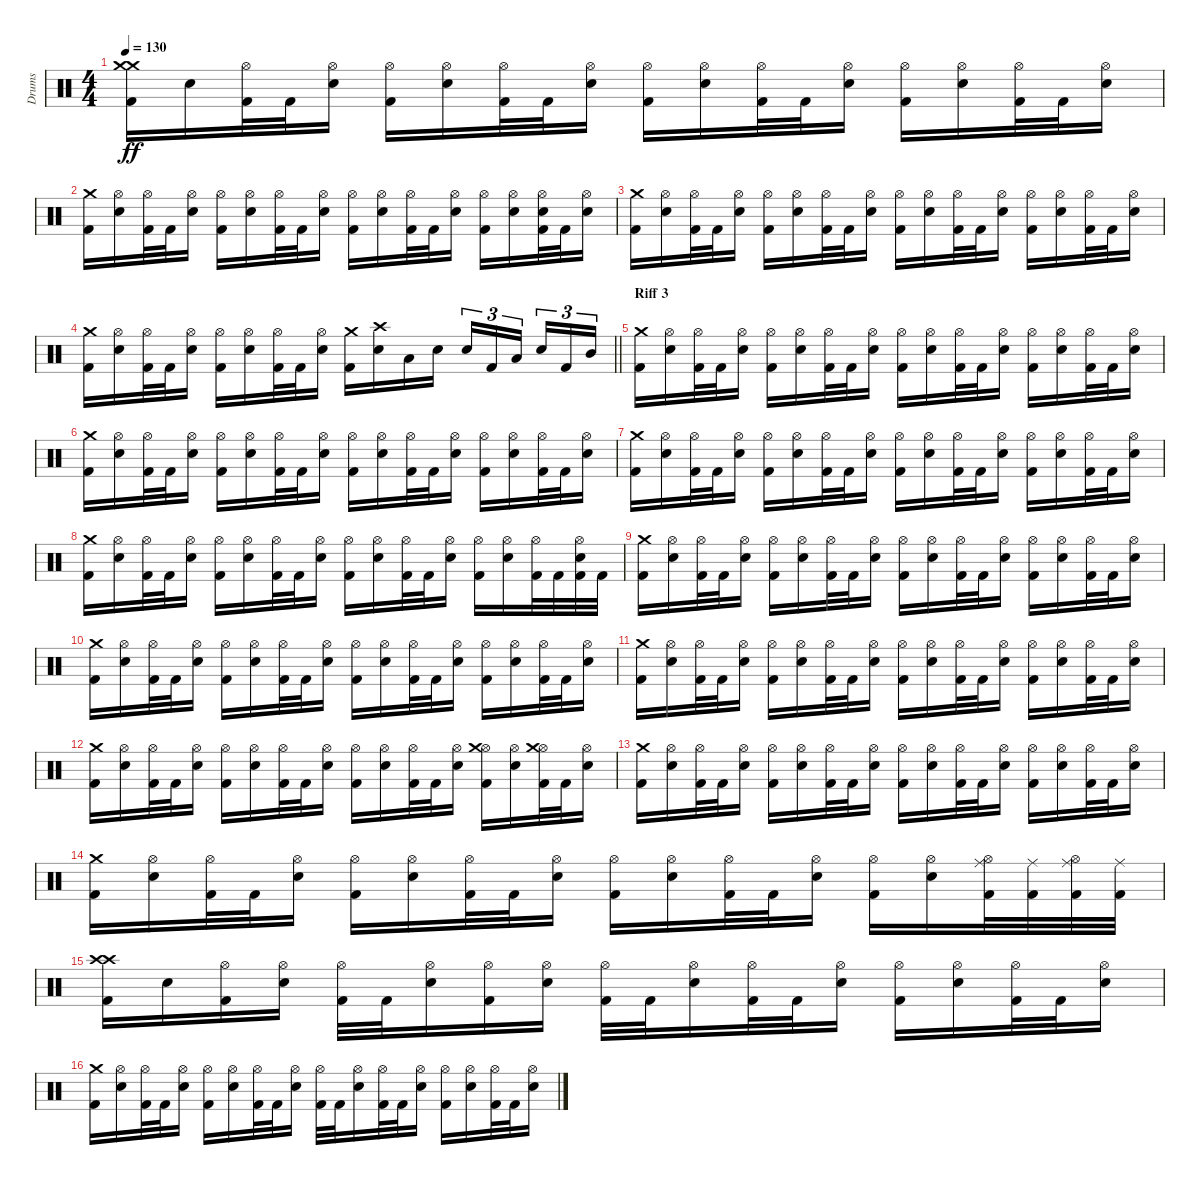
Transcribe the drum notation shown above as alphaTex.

\track ("Drums" "Drums") {instrument percussion}
\staff {score}
\articulation defaults
\ts (4 4)
\tempo 130
\clef neutral
\ks c
("Crash medium (hit)" "Crash medium (hit)" "Kick (hit) 2").16{dy ff} "Snare (hit) 2".16 ("Hi-Hat (open)" "Kick (hit) 2").32 "Kick (hit) 2".32 ("Hi-Hat (open)" "Snare (hit) 2").16 ("Hi-Hat (open)" "Kick (hit) 2").16 ("Hi-Hat (open)" "Snare (hit) 2").16 ("Hi-Hat (open)" "Kick (hit) 2").32 "Kick (hit) 2".32 ("Hi-Hat (open)" "Snare (hit) 2").16 ("Hi-Hat (open)" "Kick (hit) 2").16 ("Hi-Hat (open)" "Snare (hit) 2").16 ("Hi-Hat (open)" "Kick (hit) 2").32 "Kick (hit) 2".32 ("Hi-Hat (open)" "Snare (hit) 2").16 ("Hi-Hat (open)" "Kick (hit) 2").16 ("Hi-Hat (open)" "Snare (hit) 2").16 ("Hi-Hat (open)" "Kick (hit) 2").32 "Kick (hit) 2".32 ("Hi-Hat (open)" "Snare (hit) 2").16 |
("Crash medium (hit)" "Kick (hit) 2").16 ("Hi-Hat (open)" "Snare (hit) 2").16 ("Hi-Hat (open)" "Kick (hit) 2").32 "Kick (hit) 2".32 ("Hi-Hat (open)" "Snare (hit) 2").16 ("Hi-Hat (open)" "Kick (hit) 2").16 ("Hi-Hat (open)" "Snare (hit) 2").16 ("Hi-Hat (open)" "Kick (hit) 2").32 "Kick (hit) 2".32 ("Hi-Hat (open)" "Snare (hit) 2").16 ("Hi-Hat (open)" "Kick (hit) 2").16 ("Hi-Hat (open)" "Snare (hit) 2").16 ("Hi-Hat (open)" "Kick (hit) 2").32 "Kick (hit) 2".32 ("Hi-Hat (open)" "Snare (hit) 2").16 ("Hi-Hat (open)" "Kick (hit) 2").16 ("Hi-Hat (open)" "Snare (hit) 2").16 ("Hi-Hat (open)" "Kick (hit) 2" "Snare (hit) 2").32 "Kick (hit) 2".32 ("Hi-Hat (open)" "Snare (hit) 2").16 |
("Crash medium (hit)" "Kick (hit) 2").16 ("Hi-Hat (open)" "Snare (hit) 2").16 ("Hi-Hat (open)" "Kick (hit) 2").32 "Kick (hit) 2".32 ("Hi-Hat (open)" "Snare (hit) 2").16 ("Hi-Hat (open)" "Kick (hit) 2").16 ("Hi-Hat (open)" "Snare (hit) 2").16 ("Hi-Hat (open)" "Kick (hit) 2").32 "Kick (hit) 2".32 ("Hi-Hat (open)" "Snare (hit) 2").16 ("Hi-Hat (open)" "Kick (hit) 2").16 ("Hi-Hat (open)" "Snare (hit) 2").16 ("Hi-Hat (open)" "Kick (hit) 2").32 "Kick (hit) 2".32 ("Hi-Hat (open)" "Snare (hit) 2").16 ("Hi-Hat (open)" "Kick (hit) 2").16 ("Hi-Hat (open)" "Snare (hit) 2").16 ("Hi-Hat (open)" "Kick (hit) 2").32 "Kick (hit) 2".32 ("Hi-Hat (open)" "Snare (hit) 2").16 |
\barLineRight lightlight
("Crash medium (hit)" "Kick (hit) 2").16 ("Hi-Hat (open)" "Snare (hit) 2").16 ("Hi-Hat (open)" "Kick (hit) 2").32 "Kick (hit) 2".32 ("Hi-Hat (open)" "Snare (hit) 2").16 ("Hi-Hat (open)" "Kick (hit) 2").16 ("Hi-Hat (open)" "Snare (hit) 2").16 ("Hi-Hat (open)" "Kick (hit) 2").32 "Kick (hit) 2".32 ("Hi-Hat (open)" "Snare (hit) 2").16 ("Crash medium (hit)" "Kick (hit) 2").16 ("Crash high (hit)" "Snare (hit) 2").16 "Low Tom (hit)".16 "Snare (hit) 2".16 "Snare (hit) 2".16{tu (3 2)} "Kick (hit) 2".16{tu (3 2)} "Low Tom (hit)".16{tu (3 2) beam splitsecondary} "Snare (hit) 2".16{tu (3 2)} "Kick (hit) 2".16{tu (3 2)} "Mid Tom (hit)".16{tu (3 2)} |
\section ("" "Riff 3")
("Crash medium (hit)" "Kick (hit) 2").16 ("Hi-Hat (open)" "Snare (hit) 2").16 ("Hi-Hat (open)" "Kick (hit) 2").32 "Kick (hit) 2".32 ("Hi-Hat (open)" "Snare (hit) 2").16 ("Hi-Hat (open)" "Kick (hit) 2").16 ("Hi-Hat (open)" "Snare (hit) 2").16 ("Hi-Hat (open)" "Kick (hit) 2").32 "Kick (hit) 2".32 ("Hi-Hat (open)" "Snare (hit) 2").16 ("Hi-Hat (open)" "Kick (hit) 2").16 ("Hi-Hat (open)" "Snare (hit) 2").16 ("Hi-Hat (open)" "Kick (hit) 2").32 "Kick (hit) 2".32 ("Hi-Hat (open)" "Snare (hit) 2").16 ("Hi-Hat (open)" "Kick (hit) 2").16 ("Hi-Hat (open)" "Snare (hit) 2").16 ("Hi-Hat (open)" "Kick (hit) 2").32 "Kick (hit) 2".32 ("Hi-Hat (open)" "Snare (hit) 2").16 |
("Crash medium (hit)" "Kick (hit) 2").16 ("Hi-Hat (open)" "Snare (hit) 2").16 ("Hi-Hat (open)" "Kick (hit) 2").32 "Kick (hit) 2".32 ("Hi-Hat (open)" "Snare (hit) 2").16 ("Hi-Hat (open)" "Kick (hit) 2").16 ("Hi-Hat (open)" "Snare (hit) 2").16 ("Hi-Hat (open)" "Kick (hit) 2").32 "Kick (hit) 2".32 ("Hi-Hat (open)" "Snare (hit) 2").16 ("Hi-Hat (open)" "Kick (hit) 2").16 ("Hi-Hat (open)" "Snare (hit) 2").16 ("Hi-Hat (open)" "Kick (hit) 2").32 "Kick (hit) 2".32 ("Hi-Hat (open)" "Snare (hit) 2").16 ("Hi-Hat (open)" "Kick (hit) 2").16 ("Hi-Hat (open)" "Snare (hit) 2").16 ("Hi-Hat (open)" "Kick (hit) 2").32 "Kick (hit) 2".32 ("Hi-Hat (open)" "Snare (hit) 2").16 |
("Crash medium (hit)" "Kick (hit) 2").16 ("Hi-Hat (open)" "Snare (hit) 2").16 ("Hi-Hat (open)" "Kick (hit) 2").32 "Kick (hit) 2".32 ("Hi-Hat (open)" "Snare (hit) 2").16 ("Hi-Hat (open)" "Kick (hit) 2").16 ("Hi-Hat (open)" "Snare (hit) 2").16 ("Hi-Hat (open)" "Kick (hit) 2").32 "Kick (hit) 2".32 ("Hi-Hat (open)" "Snare (hit) 2").16 ("Hi-Hat (open)" "Kick (hit) 2").16 ("Hi-Hat (open)" "Snare (hit) 2").16 ("Hi-Hat (open)" "Kick (hit) 2").32 "Kick (hit) 2".32 ("Hi-Hat (open)" "Snare (hit) 2").16 ("Hi-Hat (open)" "Kick (hit) 2").16 ("Hi-Hat (open)" "Snare (hit) 2").16 ("Hi-Hat (open)" "Kick (hit) 2").32 "Kick (hit) 2".32 ("Hi-Hat (open)" "Snare (hit) 2").16 |
("Crash medium (hit)" "Kick (hit) 2").16 ("Hi-Hat (open)" "Snare (hit) 2").16 ("Hi-Hat (open)" "Kick (hit) 2").32 "Kick (hit) 2".32 ("Hi-Hat (open)" "Snare (hit) 2").16 ("Hi-Hat (open)" "Kick (hit) 2").16 ("Hi-Hat (open)" "Snare (hit) 2").16 ("Hi-Hat (open)" "Kick (hit) 2").32 "Kick (hit) 2".32 ("Hi-Hat (open)" "Snare (hit) 2").16 ("Hi-Hat (open)" "Kick (hit) 2").16 ("Hi-Hat (open)" "Snare (hit) 2").16 ("Hi-Hat (open)" "Kick (hit) 2").32 "Kick (hit) 2".32 ("Hi-Hat (open)" "Snare (hit) 2").16 ("Hi-Hat (open)" "Kick (hit) 2").16 ("Hi-Hat (open)" "Snare (hit) 2").16 ("Hi-Hat (open)" "Kick (hit) 2").32 "Kick (hit) 2".32 ("Hi-Hat (open)" "Kick (hit) 2" "Snare (hit) 2").32 "Kick (hit) 2".32 |
("Crash medium (hit)" "Kick (hit) 2").16 ("Hi-Hat (open)" "Snare (hit) 2").16 ("Hi-Hat (open)" "Kick (hit) 2").32 "Kick (hit) 2".32 ("Hi-Hat (open)" "Snare (hit) 2").16 ("Hi-Hat (open)" "Kick (hit) 2").16 ("Hi-Hat (open)" "Snare (hit) 2").16 ("Hi-Hat (open)" "Kick (hit) 2").32 "Kick (hit) 2".32 ("Hi-Hat (open)" "Snare (hit) 2").16 ("Hi-Hat (open)" "Kick (hit) 2").16 ("Hi-Hat (open)" "Snare (hit) 2").16 ("Hi-Hat (open)" "Kick (hit) 2").32 "Kick (hit) 2".32 ("Hi-Hat (open)" "Snare (hit) 2").16 ("Hi-Hat (open)" "Kick (hit) 2").16 ("Hi-Hat (open)" "Snare (hit) 2").16 ("Hi-Hat (open)" "Kick (hit) 2").32 "Kick (hit) 2".32 ("Hi-Hat (open)" "Snare (hit) 2").16 |
("Crash medium (hit)" "Kick (hit) 2").16 ("Hi-Hat (open)" "Snare (hit) 2").16 ("Hi-Hat (open)" "Kick (hit) 2").32 "Kick (hit) 2".32 ("Hi-Hat (open)" "Snare (hit) 2").16 ("Hi-Hat (open)" "Kick (hit) 2").16 ("Hi-Hat (open)" "Snare (hit) 2").16 ("Hi-Hat (open)" "Kick (hit) 2").32 "Kick (hit) 2".32 ("Hi-Hat (open)" "Snare (hit) 2").16 ("Hi-Hat (open)" "Kick (hit) 2").16 ("Hi-Hat (open)" "Snare (hit) 2").16 ("Hi-Hat (open)" "Kick (hit) 2").32 "Kick (hit) 2".32 ("Hi-Hat (open)" "Snare (hit) 2").16 ("Hi-Hat (open)" "Kick (hit) 2").16 ("Hi-Hat (open)" "Snare (hit) 2").16 ("Hi-Hat (open)" "Kick (hit) 2").32 "Kick (hit) 2".32 ("Hi-Hat (open)" "Snare (hit) 2").16 |
("Crash medium (hit)" "Kick (hit) 2").16 ("Hi-Hat (open)" "Snare (hit) 2").16 ("Hi-Hat (open)" "Kick (hit) 2").32 "Kick (hit) 2".32 ("Hi-Hat (open)" "Snare (hit) 2").16 ("Hi-Hat (open)" "Kick (hit) 2").16 ("Hi-Hat (open)" "Snare (hit) 2").16 ("Hi-Hat (open)" "Kick (hit) 2").32 "Kick (hit) 2".32 ("Hi-Hat (open)" "Snare (hit) 2").16 ("Hi-Hat (open)" "Kick (hit) 2").16 ("Hi-Hat (open)" "Snare (hit) 2").16 ("Hi-Hat (open)" "Kick (hit) 2").32 "Kick (hit) 2".32 ("Hi-Hat (open)" "Snare (hit) 2").16 ("Hi-Hat (open)" "Kick (hit) 2").16 ("Hi-Hat (open)" "Snare (hit) 2").16 ("Hi-Hat (open)" "Kick (hit) 2").32 "Kick (hit) 2".32 ("Hi-Hat (open)" "Snare (hit) 2").16 |
("Crash medium (hit)" "Kick (hit) 2").16 ("Hi-Hat (open)" "Snare (hit) 2").16 ("Hi-Hat (open)" "Kick (hit) 2").32 "Kick (hit) 2".32 ("Hi-Hat (open)" "Snare (hit) 2").16 ("Hi-Hat (open)" "Kick (hit) 2").16 ("Hi-Hat (open)" "Snare (hit) 2").16 ("Hi-Hat (open)" "Kick (hit) 2").32 "Kick (hit) 2".32 ("Hi-Hat (open)" "Snare (hit) 2").16 ("Hi-Hat (open)" "Kick (hit) 2").16 ("Hi-Hat (open)" "Snare (hit) 2").16 ("Hi-Hat (open)" "Kick (hit) 2").32 "Kick (hit) 2".32 ("Hi-Hat (open)" "Snare (hit) 2").16 ("Hi-Hat (open)" "Crash medium (hit)" "Kick (hit) 2").16 ("Hi-Hat (open)" "Snare (hit) 2").16 ("Hi-Hat (open)" "Crash medium (hit)" "Kick (hit) 2").32 "Kick (hit) 2".32 ("Hi-Hat (open)" "Snare (hit) 2").16 |
("Crash medium (hit)" "Kick (hit) 2").16 ("Hi-Hat (open)" "Snare (hit) 2").16 ("Hi-Hat (open)" "Kick (hit) 2").32 "Kick (hit) 2".32 ("Hi-Hat (open)" "Snare (hit) 2").16 ("Hi-Hat (open)" "Kick (hit) 2").16 ("Hi-Hat (open)" "Snare (hit) 2").16 ("Hi-Hat (open)" "Kick (hit) 2").32 "Kick (hit) 2".32 ("Hi-Hat (open)" "Snare (hit) 2").16 ("Hi-Hat (open)" "Kick (hit) 2").16 ("Hi-Hat (open)" "Snare (hit) 2").16 ("Hi-Hat (open)" "Kick (hit) 2").32 "Kick (hit) 2".32 ("Hi-Hat (open)" "Snare (hit) 2").16 ("Hi-Hat (open)" "Kick (hit) 2").16 ("Hi-Hat (open)" "Snare (hit) 2").16 ("Hi-Hat (open)" "Kick (hit) 2").32 "Kick (hit) 2".32 ("Hi-Hat (open)" "Snare (hit) 2").16 |
("Crash medium (hit)" "Kick (hit) 2").16 ("Hi-Hat (open)" "Snare (hit) 2").16 ("Hi-Hat (open)" "Kick (hit) 2").32 "Kick (hit) 2".32 ("Hi-Hat (open)" "Snare (hit) 2").16 ("Hi-Hat (open)" "Kick (hit) 2").16 ("Hi-Hat (open)" "Snare (hit) 2").16 ("Hi-Hat (open)" "Kick (hit) 2").32 "Kick (hit) 2".32 ("Hi-Hat (open)" "Snare (hit) 2").16 ("Hi-Hat (open)" "Kick (hit) 2").16 ("Hi-Hat (open)" "Snare (hit) 2").16 ("Hi-Hat (open)" "Kick (hit) 2").32 "Kick (hit) 2".32 ("Hi-Hat (open)" "Snare (hit) 2").16 ("Hi-Hat (open)" "Kick (hit) 2").16 ("Hi-Hat (open)" "Snare (hit) 2").16 ("Hi-Hat (open)" "Kick (hit) 2" "Ride (middle)").32 ("Kick (hit) 2" "Ride (middle)").32 ("Hi-Hat (open)" "Kick (hit) 2" "Ride (middle)").32 ("Kick (hit) 2" "Ride (middle)").32 |
("Crash high (hit)" "Kick (hit) 2" "Crash high (hit)").16 "Snare (hit) 2".16 ("Hi-Hat (open)" "Kick (hit) 2").16 ("Hi-Hat (open)" "Snare (hit) 2").16 ("Hi-Hat (open)" "Kick (hit) 2").32 "Kick (hit) 2".32 ("Hi-Hat (open)" "Snare (hit) 2").16 ("Hi-Hat (open)" "Kick (hit) 2").16 ("Hi-Hat (open)" "Snare (hit) 2").16 ("Hi-Hat (open)" "Kick (hit) 2").32 "Kick (hit) 2".32 ("Hi-Hat (open)" "Snare (hit) 2").16 ("Hi-Hat (open)" "Kick (hit) 2").32 "Kick (hit) 2".32 ("Hi-Hat (open)" "Snare (hit) 2").16 ("Hi-Hat (open)" "Kick (hit) 2").16 ("Hi-Hat (open)" "Snare (hit) 2").16 ("Hi-Hat (open)" "Kick (hit) 2").32 "Kick (hit) 2".32 ("Hi-Hat (open)" "Snare (hit) 2").16 |
("Crash medium (hit)" "Kick (hit) 2").16 ("Hi-Hat (open)" "Snare (hit) 2").16 ("Hi-Hat (open)" "Kick (hit) 2").32 "Kick (hit) 2".32 ("Hi-Hat (open)" "Snare (hit) 2").16 ("Hi-Hat (open)" "Kick (hit) 2").16 ("Hi-Hat (open)" "Snare (hit) 2").16 ("Hi-Hat (open)" "Kick (hit) 2").32 "Kick (hit) 2".32 ("Hi-Hat (open)" "Snare (hit) 2").16 ("Hi-Hat (open)" "Kick (hit) 2").32 "Kick (hit) 2".32 ("Hi-Hat (open)" "Snare (hit) 2").16 ("Hi-Hat (open)" "Kick (hit) 2").32 "Kick (hit) 2".32 ("Hi-Hat (open)" "Snare (hit) 2").16 ("Hi-Hat (open)" "Kick (hit) 2").16 ("Hi-Hat (open)" "Snare (hit) 2").16 ("Hi-Hat (open)" "Kick (hit) 2").32 "Kick (hit) 2".32 ("Hi-Hat (open)" "Snare (hit) 2").16
